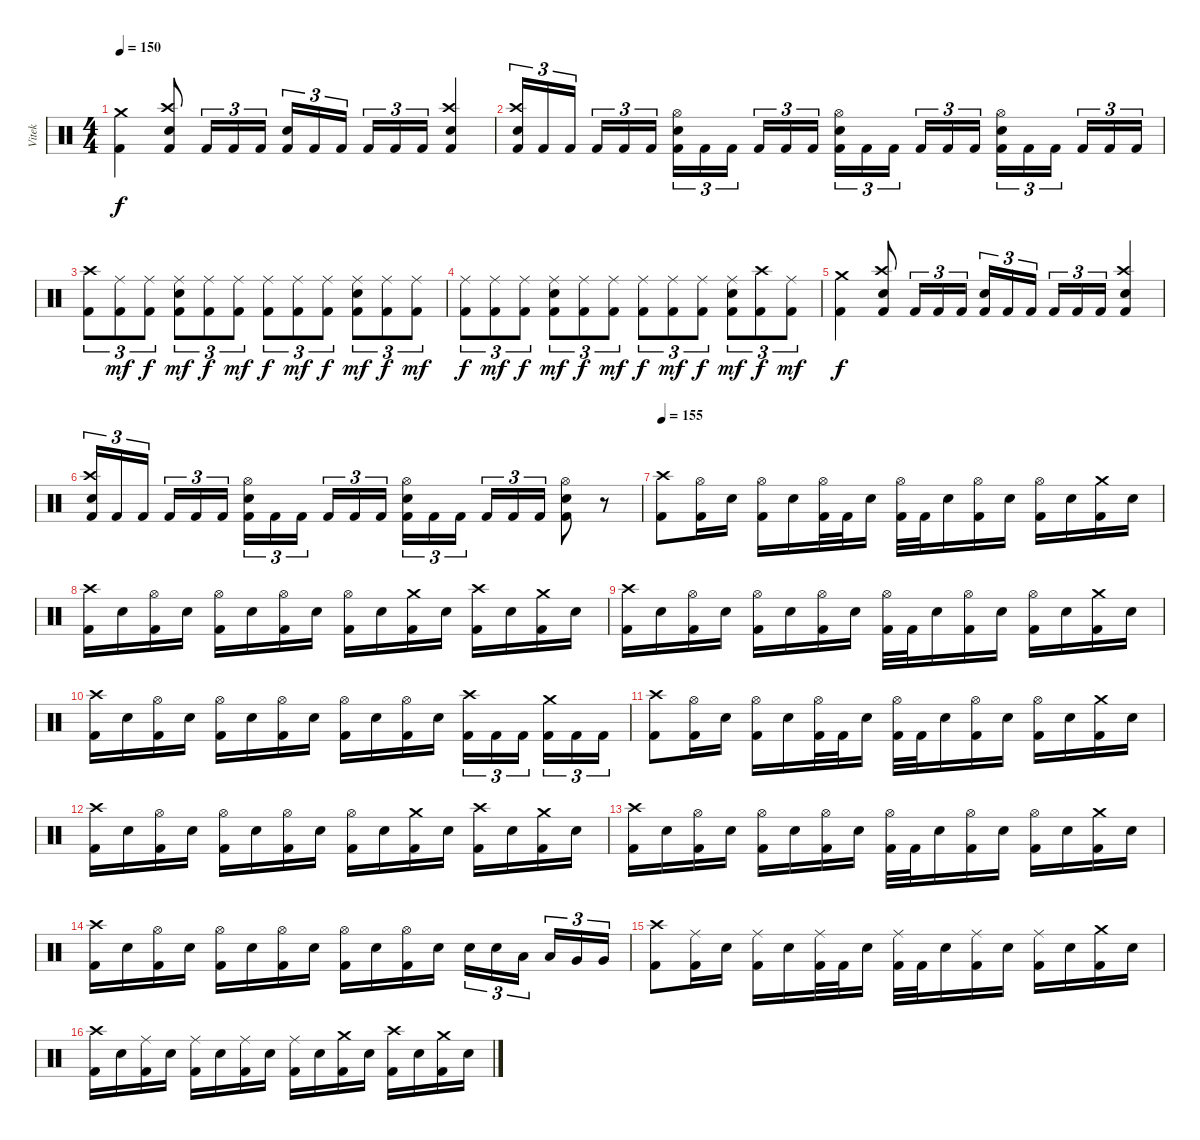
\track ("Vitek" "Vitek") {instrument percussion}
\staff {score}
\articulation defaults
\ts (4 4)
\tempo 150
\clef neutral
\ks c
("Crash medium (hit)" "Kick (hit) 2").4{dy f} ("Crash high (hit)" "Electric Snare (hit)" "Kick (hit) 2").8 "Kick (hit) 2".16{tu (3 2)} "Kick (hit) 2".16{tu (3 2)} "Kick (hit) 2".16{tu (3 2)} ("Electric Snare (hit)" "Kick (hit) 2").16{tu (3 2)} "Kick (hit) 2".16{tu (3 2)} "Kick (hit) 2".16{tu (3 2) beam splitsecondary} "Kick (hit) 2".16{tu (3 2)} "Kick (hit) 2".16{tu (3 2)} "Kick (hit) 2".16{tu (3 2)} ("Crash high (hit)" "Electric Snare (hit)" "Kick (hit) 2").4 |
("Crash high (hit)" "Electric Snare (hit)" "Kick (hit) 2").16{tu (3 2)} "Kick (hit) 2".16{tu (3 2)} "Kick (hit) 2".16{tu (3 2) beam splitsecondary} "Kick (hit) 2".16{tu (3 2)} "Kick (hit) 2".16{tu (3 2)} "Kick (hit) 2".16{tu (3 2)} ("Hi-Hat (open)" "Electric Snare (hit)" "Kick (hit) 2").16{tu (3 2)} "Kick (hit) 2".16{tu (3 2)} "Kick (hit) 2".16{tu (3 2) beam splitsecondary} "Kick (hit) 2".16{tu (3 2)} "Kick (hit) 2".16{tu (3 2)} "Kick (hit) 2".16{tu (3 2)} ("Hi-Hat (open)" "Electric Snare (hit)" "Kick (hit) 2").16{tu (3 2)} "Kick (hit) 2".16{tu (3 2)} "Kick (hit) 2".16{tu (3 2) beam splitsecondary} "Kick (hit) 2".16{tu (3 2)} "Kick (hit) 2".16{tu (3 2)} "Kick (hit) 2".16{tu (3 2)} ("Hi-Hat (open)" "Electric Snare (hit)" "Kick (hit) 2").16{tu (3 2)} "Kick (hit) 2".16{tu (3 2)} "Kick (hit) 2".16{tu (3 2) beam splitsecondary} "Kick (hit) 2".16{tu (3 2)} "Kick (hit) 2".16{tu (3 2)} "Kick (hit) 2".16{tu (3 2)} |
("Crash high (hit)" "Kick (hit) 2").8{tu (3 2)} ("Ride (middle)" "Kick (hit) 2").8{tu (3 2) dy mf} ("Ride (middle)" "Kick (hit) 2").8{tu (3 2) dy f} ("Ride (middle)" "Electric Snare (hit)" "Kick (hit) 2").8{tu (3 2) dy mf} ("Ride (middle)" "Kick (hit) 2").8{tu (3 2) dy f} ("Ride (middle)" "Kick (hit) 2").8{tu (3 2) dy mf} ("Ride (middle)" "Kick (hit) 2").8{tu (3 2) dy f} ("Ride (middle)" "Kick (hit) 2").8{tu (3 2) dy mf} ("Ride (middle)" "Kick (hit) 2").8{tu (3 2) dy f} ("Ride (middle)" "Electric Snare (hit)" "Kick (hit) 2").8{tu (3 2) dy mf} ("Ride (middle)" "Kick (hit) 2").8{tu (3 2) dy f} ("Ride (middle)" "Kick (hit) 2").8{tu (3 2) dy mf} |
("Ride (middle)" "Kick (hit) 2").8{tu (3 2) dy f} ("Ride (middle)" "Kick (hit) 2").8{tu (3 2) dy mf} ("Ride (middle)" "Kick (hit) 2").8{tu (3 2) dy f} ("Ride (middle)" "Electric Snare (hit)" "Kick (hit) 2").8{tu (3 2) dy mf} ("Ride (middle)" "Kick (hit) 2").8{tu (3 2) dy f} ("Ride (middle)" "Kick (hit) 2").8{tu (3 2) dy mf} ("Ride (middle)" "Kick (hit) 2").8{tu (3 2) dy f} ("Ride (middle)" "Kick (hit) 2").8{tu (3 2) dy mf} ("Ride (middle)" "Kick (hit) 2").8{tu (3 2) dy f} ("Ride (middle)" "Electric Snare (hit)" "Kick (hit) 2").8{tu (3 2) dy mf} ("Crash high (hit)" "Kick (hit) 2").8{tu (3 2) dy f} ("Ride (middle)" "Kick (hit) 2").8{tu (3 2) dy mf} |
("Crash medium (hit)" "Kick (hit) 2").4{dy f} ("Crash high (hit)" "Electric Snare (hit)" "Kick (hit) 2").8 "Kick (hit) 2".16{tu (3 2)} "Kick (hit) 2".16{tu (3 2)} "Kick (hit) 2".16{tu (3 2)} ("Electric Snare (hit)" "Kick (hit) 2").16{tu (3 2)} "Kick (hit) 2".16{tu (3 2)} "Kick (hit) 2".16{tu (3 2) beam splitsecondary} "Kick (hit) 2".16{tu (3 2)} "Kick (hit) 2".16{tu (3 2)} "Kick (hit) 2".16{tu (3 2)} ("Crash high (hit)" "Electric Snare (hit)" "Kick (hit) 2").4 |
("Crash high (hit)" "Electric Snare (hit)" "Kick (hit) 2").16{tu (3 2)} "Kick (hit) 2".16{tu (3 2)} "Kick (hit) 2".16{tu (3 2) beam splitsecondary} "Kick (hit) 2".16{tu (3 2)} "Kick (hit) 2".16{tu (3 2)} "Kick (hit) 2".16{tu (3 2)} ("Hi-Hat (open)" "Electric Snare (hit)" "Kick (hit) 2").16{tu (3 2)} "Kick (hit) 2".16{tu (3 2)} "Kick (hit) 2".16{tu (3 2) beam splitsecondary} "Kick (hit) 2".16{tu (3 2)} "Kick (hit) 2".16{tu (3 2)} "Kick (hit) 2".16{tu (3 2)} ("Hi-Hat (open)" "Electric Snare (hit)" "Kick (hit) 2").16{tu (3 2)} "Kick (hit) 2".16{tu (3 2)} "Kick (hit) 2".16{tu (3 2) beam splitsecondary} "Kick (hit) 2".16{tu (3 2)} "Kick (hit) 2".16{tu (3 2)} "Kick (hit) 2".16{tu (3 2)} ("Hi-Hat (open)" "Electric Snare (hit)" "Kick (hit) 2").8 r.8 |
\tempo 155
("Crash high (hit)" "Kick (hit) 2").8 ("Hi-Hat (open)" "Kick (hit) 2").16 "Electric Snare (hit)".16 ("Hi-Hat (open)" "Kick (hit) 2").16 "Electric Snare (hit)".16 ("Hi-Hat (open)" "Kick (hit) 2").32 "Kick (hit) 2".32 "Electric Snare (hit)".16 ("Hi-Hat (open)" "Kick (hit) 2").32 "Kick (hit) 2".32 "Electric Snare (hit)".16 ("Hi-Hat (open)" "Kick (hit) 2").16 "Electric Snare (hit)".16 ("Hi-Hat (open)" "Kick (hit) 2").16 "Electric Snare (hit)".16 ("Crash medium (hit)" "Kick (hit) 2").16 "Electric Snare (hit)".16 |
("Crash high (hit)" "Kick (hit) 2").16 "Electric Snare (hit)".16 ("Hi-Hat (open)" "Kick (hit) 2").16 "Electric Snare (hit)".16 ("Hi-Hat (open)" "Kick (hit) 2").16 "Electric Snare (hit)".16 ("Hi-Hat (open)" "Kick (hit) 2").16 "Electric Snare (hit)".16 ("Hi-Hat (open)" "Kick (hit) 2").16 "Electric Snare (hit)".16 ("Crash medium (hit)" "Kick (hit) 2").16 "Electric Snare (hit)".16 ("Crash high (hit)" "Kick (hit) 2").16 "Electric Snare (hit)".16 ("Crash medium (hit)" "Kick (hit) 2").16 "Electric Snare (hit)".16 |
("Crash high (hit)" "Kick (hit) 2").16 "Electric Snare (hit)".16 ("Hi-Hat (open)" "Kick (hit) 2").16 "Electric Snare (hit)".16 ("Hi-Hat (open)" "Kick (hit) 2").16 "Electric Snare (hit)".16 ("Hi-Hat (open)" "Kick (hit) 2").16 "Electric Snare (hit)".16 ("Hi-Hat (open)" "Kick (hit) 2").32 "Kick (hit) 2".32 "Electric Snare (hit)".16 ("Hi-Hat (open)" "Kick (hit) 2").16 "Electric Snare (hit)".16 ("Hi-Hat (open)" "Kick (hit) 2").16 "Electric Snare (hit)".16 ("Crash medium (hit)" "Kick (hit) 2").16 "Electric Snare (hit)".16 |
("Crash high (hit)" "Kick (hit) 2").16 "Electric Snare (hit)".16 ("Hi-Hat (open)" "Kick (hit) 2").16 "Electric Snare (hit)".16 ("Hi-Hat (open)" "Kick (hit) 2").16 "Electric Snare (hit)".16 ("Hi-Hat (open)" "Kick (hit) 2").16 "Electric Snare (hit)".16 ("Hi-Hat (open)" "Kick (hit) 2").16 "Electric Snare (hit)".16 ("Hi-Hat (open)" "Kick (hit) 2").16 "Electric Snare (hit)".16 ("Crash high (hit)" "Kick (hit) 2").16{tu (3 2)} "Kick (hit) 2".16{tu (3 2)} "Kick (hit) 2".16{tu (3 2) beam splitsecondary} ("Crash medium (hit)" "Kick (hit) 2").16{tu (3 2)} "Kick (hit) 2".16{tu (3 2)} "Kick (hit) 2".16{tu (3 2)} |
("Crash high (hit)" "Kick (hit) 2").8 ("Hi-Hat (open)" "Kick (hit) 2").16 "Electric Snare (hit)".16 ("Hi-Hat (open)" "Kick (hit) 2").16 "Electric Snare (hit)".16 ("Hi-Hat (open)" "Kick (hit) 2").32 "Kick (hit) 2".32 "Electric Snare (hit)".16 ("Hi-Hat (open)" "Kick (hit) 2").32 "Kick (hit) 2".32 "Electric Snare (hit)".16 ("Hi-Hat (open)" "Kick (hit) 2").16 "Electric Snare (hit)".16 ("Hi-Hat (open)" "Kick (hit) 2").16 "Electric Snare (hit)".16 ("Crash medium (hit)" "Kick (hit) 2").16 "Electric Snare (hit)".16 |
("Crash high (hit)" "Kick (hit) 2").16 "Electric Snare (hit)".16 ("Hi-Hat (open)" "Kick (hit) 2").16 "Electric Snare (hit)".16 ("Hi-Hat (open)" "Kick (hit) 2").16 "Electric Snare (hit)".16 ("Hi-Hat (open)" "Kick (hit) 2").16 "Electric Snare (hit)".16 ("Hi-Hat (open)" "Kick (hit) 2").16 "Electric Snare (hit)".16 ("Crash medium (hit)" "Kick (hit) 2").16 "Electric Snare (hit)".16 ("Crash high (hit)" "Kick (hit) 2").16 "Electric Snare (hit)".16 ("Crash medium (hit)" "Kick (hit) 2").16 "Electric Snare (hit)".16 |
("Crash high (hit)" "Kick (hit) 2").16 "Electric Snare (hit)".16 ("Hi-Hat (open)" "Kick (hit) 2").16 "Electric Snare (hit)".16 ("Hi-Hat (open)" "Kick (hit) 2").16 "Electric Snare (hit)".16 ("Hi-Hat (open)" "Kick (hit) 2").16 "Electric Snare (hit)".16 ("Hi-Hat (open)" "Kick (hit) 2").32 "Kick (hit) 2".32 "Electric Snare (hit)".16 ("Hi-Hat (open)" "Kick (hit) 2").16 "Electric Snare (hit)".16 ("Hi-Hat (open)" "Kick (hit) 2").16 "Electric Snare (hit)".16 ("Crash medium (hit)" "Kick (hit) 2").16 "Electric Snare (hit)".16 |
("Crash high (hit)" "Kick (hit) 2").16 "Electric Snare (hit)".16 ("Hi-Hat (open)" "Kick (hit) 2").16 "Electric Snare (hit)".16 ("Hi-Hat (open)" "Kick (hit) 2").16 "Electric Snare (hit)".16 ("Hi-Hat (open)" "Kick (hit) 2").16 "Electric Snare (hit)".16 ("Hi-Hat (open)" "Kick (hit) 2").16 "Electric Snare (hit)".16 ("Hi-Hat (open)" "Kick (hit) 2").16 "Electric Snare (hit)".16 "Electric Snare (hit)".16{tu (3 2)} "Electric Snare (hit)".16{tu (3 2)} "Low Tom (hit)".16{tu (3 2) beam splitsecondary} "Low Tom (hit)".16{tu (3 2)} "Very Low Tom (hit)".16{tu (3 2)} "Very Low Tom (hit)".16{tu (3 2)} |
("Crash high (hit)" "Kick (hit) 2").8 ("Ride (middle)" "Kick (hit) 2").16 "Electric Snare (hit)".16 ("Ride (middle)" "Kick (hit) 2").16 "Electric Snare (hit)".16 ("Ride (middle)" "Kick (hit) 2").32 "Kick (hit) 2".32 "Electric Snare (hit)".16 ("Ride (middle)" "Kick (hit) 2").32 "Kick (hit) 2".32 "Electric Snare (hit)".16 ("Ride (middle)" "Kick (hit) 2").16 "Electric Snare (hit)".16 ("Ride (middle)" "Kick (hit) 2").16 "Electric Snare (hit)".16 ("Crash medium (hit)" "Kick (hit) 2").16 "Electric Snare (hit)".16 |
("Crash high (hit)" "Kick (hit) 2").16 "Electric Snare (hit)".16 ("Ride (middle)" "Kick (hit) 2").16 "Electric Snare (hit)".16 ("Ride (middle)" "Kick (hit) 2").16 "Electric Snare (hit)".16 ("Ride (middle)" "Kick (hit) 2").16 "Electric Snare (hit)".16 ("Ride (middle)" "Kick (hit) 2").16 "Electric Snare (hit)".16 ("Crash medium (hit)" "Kick (hit) 2").16 "Electric Snare (hit)".16 ("Crash high (hit)" "Kick (hit) 2").16 "Electric Snare (hit)".16 ("Crash medium (hit)" "Kick (hit) 2").16 "Electric Snare (hit)".16
